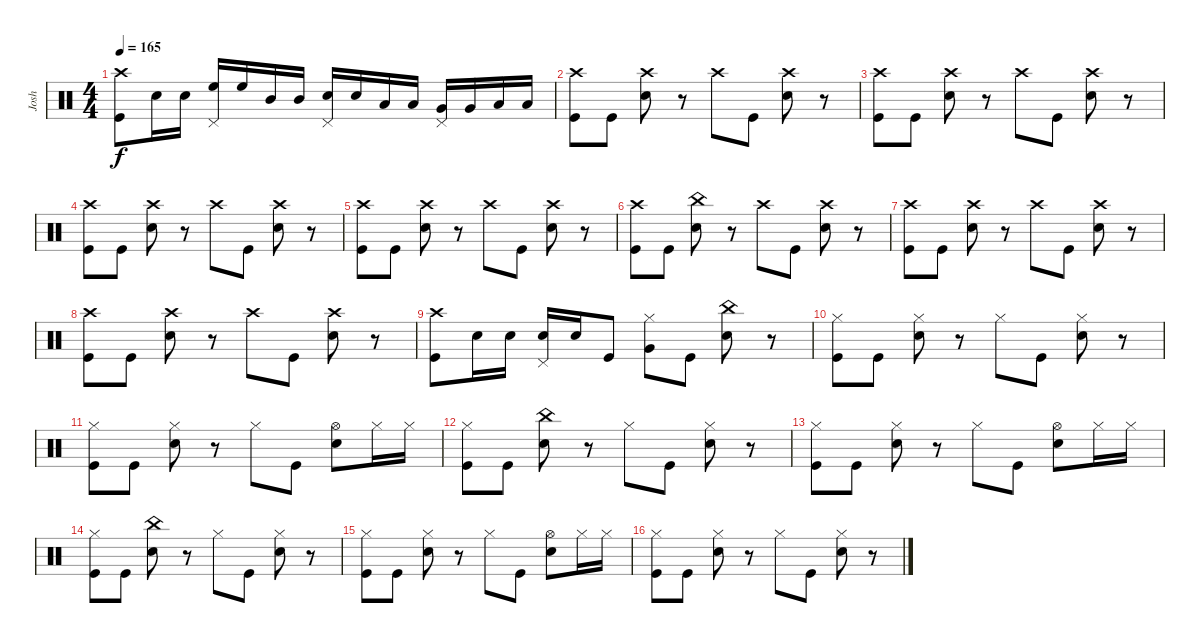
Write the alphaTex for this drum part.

\track ("Josh" "Josh") {instrument percussion}
\staff {score}
\articulation defaults
\ts (4 4)
\tempo 165
\clef neutral
\ks c
("Crash high (hit)" "Kick (hit)").8{dy f} "Snare (hit) 2".16 "Snare (hit) 2".16 ("Pedal Hi-Hat (hit)" "High Floor Tom (hit)").16 "High Floor Tom (hit)".16 "Mid Tom (hit)".16 "Mid Tom (hit)".16 ("Pedal Hi-Hat (hit)" "Snare (hit) 2").16 "Snare (hit) 2".16 "Low Tom (hit)".16 "Low Tom (hit)".16 ("Pedal Hi-Hat (hit)" "Very Low Tom (hit)").16 "Very Low Tom (hit)".16 "Low Tom (hit)".16 "Low Tom (hit)".16 |
("Crash high (hit)" "Kick (hit)").8 "Kick (hit)".8 ("Crash high (hit)" "Snare (hit) 2").8 r.8 "Crash high (hit)".8 "Kick (hit)".8 ("Crash high (hit)" "Snare (hit) 2").8 r.8 |
("Crash high (hit)" "Kick (hit)").8 "Kick (hit)".8 ("Crash high (hit)" "Snare (hit) 2").8 r.8 "Crash high (hit)".8 "Kick (hit)".8 ("Crash high (hit)" "Snare (hit) 2").8 r.8 |
("Crash high (hit)" "Kick (hit)").8 "Kick (hit)".8 ("Crash high (hit)" "Snare (hit) 2").8 r.8 "Crash high (hit)".8 "Kick (hit)".8 ("Crash high (hit)" "Snare (hit) 2").8 r.8 |
("Crash high (hit)" "Kick (hit)").8 "Kick (hit)".8 ("Crash high (hit)" "Snare (hit) 2").8 r.8 "Crash high (hit)".8 "Kick (hit)".8 ("Crash high (hit)" "Snare (hit) 2").8 r.8 |
("Crash high (hit)" "Kick (hit)").8 "Kick (hit)".8 ("China (hit)" "Snare (hit) 2").8 r.8 "Crash high (hit)".8 "Kick (hit)".8 ("Crash high (hit)" "Snare (hit) 2").8 r.8 |
("Crash high (hit)" "Kick (hit)").8 "Kick (hit)".8 ("Crash high (hit)" "Snare (hit) 2").8 r.8 "Crash high (hit)".8 "Kick (hit)".8 ("Crash high (hit)" "Snare (hit) 2").8 r.8 |
("Crash high (hit)" "Kick (hit)").8 "Kick (hit)".8 ("Crash high (hit)" "Snare (hit) 2").8 r.8 "Crash high (hit)".8 "Kick (hit)".8 ("Crash high (hit)" "Snare (hit) 2").8 r.8 |
("Crash high (hit)" "Kick (hit)").8 "Snare (hit) 2".16 "Snare (hit) 2".16 ("Pedal Hi-Hat (hit)" "Snare (hit) 2").16 "Snare (hit) 2".16 "Kick (hit)".8 ("Hi-Hat (closed)" "Very Low Tom (hit)").8 "Kick (hit)".8 ("China (hit)" "Snare (hit) 2").8 r.8 |
("Hi-Hat (closed)" "Kick (hit)").8 "Kick (hit)".8 ("Hi-Hat (closed)" "Snare (hit) 2").8 r.8 "Hi-Hat (closed)".8 "Kick (hit)".8 ("Hi-Hat (closed)" "Snare (hit) 2").8 r.8 |
("Hi-Hat (closed)" "Kick (hit)").8 "Kick (hit)".8 ("Hi-Hat (closed)" "Snare (hit) 2").8 r.8 "Hi-Hat (closed)".8 "Kick (hit)".8 ("Hi-Hat (open)" "Snare (hit) 2").8 "Hi-Hat (closed)".16 "Hi-Hat (closed)".16 |
("Hi-Hat (closed)" "Kick (hit)").8 "Kick (hit)".8 ("China (hit)" "Snare (hit) 2").8 r.8 "Hi-Hat (closed)".8 "Kick (hit)".8 ("Hi-Hat (closed)" "Snare (hit) 2").8 r.8 |
("Hi-Hat (closed)" "Kick (hit)").8 "Kick (hit)".8 ("Hi-Hat (closed)" "Snare (hit) 2").8 r.8 "Hi-Hat (closed)".8 "Kick (hit)".8 ("Hi-Hat (open)" "Snare (hit) 2").8 "Hi-Hat (closed)".16 "Hi-Hat (closed)".16 |
("Hi-Hat (closed)" "Kick (hit)").8 "Kick (hit)".8 ("China (hit)" "Snare (hit) 2").8 r.8 "Hi-Hat (closed)".8 "Kick (hit)".8 ("Hi-Hat (closed)" "Snare (hit) 2").8 r.8 |
("Hi-Hat (closed)" "Kick (hit)").8 "Kick (hit)".8 ("Hi-Hat (closed)" "Snare (hit) 2").8 r.8 "Hi-Hat (closed)".8 "Kick (hit)".8 ("Hi-Hat (open)" "Snare (hit) 2").8 "Hi-Hat (closed)".16 "Hi-Hat (closed)".16 |
("Hi-Hat (closed)" "Kick (hit)").8 "Kick (hit)".8 ("Hi-Hat (closed)" "Snare (hit) 2").8 r.8 "Hi-Hat (closed)".8 "Kick (hit)".8 ("Hi-Hat (closed)" "Snare (hit) 2").8 r.8
